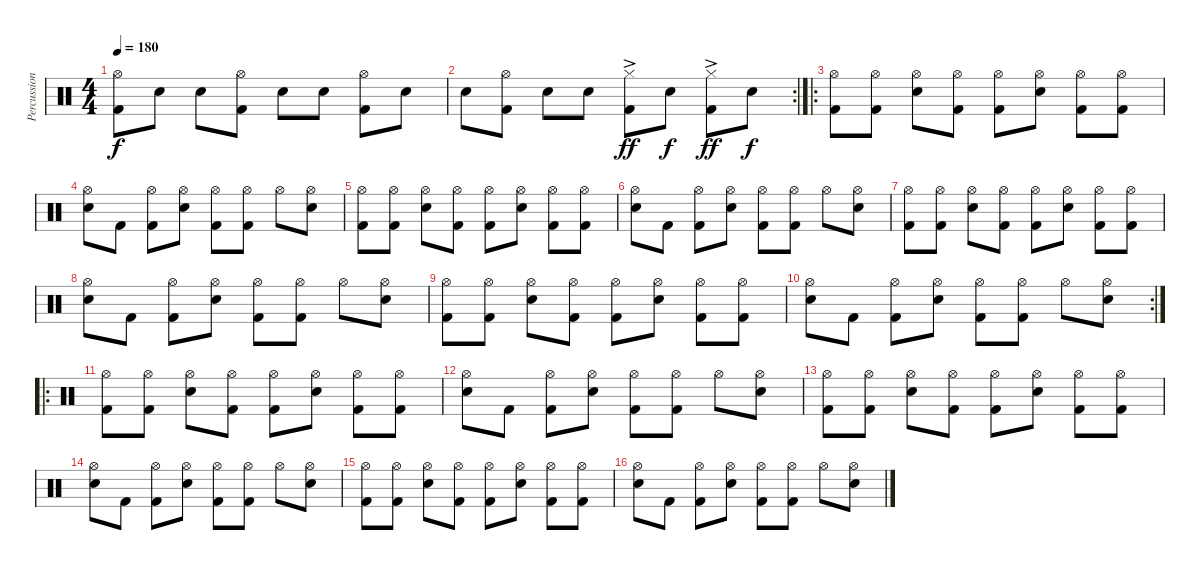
\track ("Percussion" "Percussion") {instrument percussion}
\staff {score}
\articulation defaults
\ts (4 4)
\tempo 180
\clef neutral
\ks c
("Hi-Hat (open)" "Kick (hit) 2").8{dy f} "Snare (hit) 2".8 "Snare (hit) 2".8 ("Hi-Hat (open)" "Kick (hit) 2").8 "Snare (hit) 2".8 "Snare (hit) 2".8 ("Hi-Hat (open)" "Kick (hit) 2").8 "Snare (hit) 2".8 |
\rc 2 "Snare (hit) 2".8
("Hi-Hat (open)" "Kick (hit) 2").8 "Snare (hit) 2".8 "Snare (hit) 2".8 ("Hi-Hat (closed)"{ac} "Kick (hit) 2").8{dy ff} "Snare (hit) 2".8{dy f} ("Hi-Hat (closed)"{ac} "Kick (hit) 2").8{dy ff} "Snare (hit) 2".8{dy f} |
\ro
("Hi-Hat (open)" "Kick (hit) 2").8 ("Hi-Hat (open)" "Kick (hit) 2").8 ("Hi-Hat (open)" "Snare (hit) 2").8 ("Hi-Hat (open)" "Kick (hit) 2").8 ("Hi-Hat (open)" "Kick (hit) 2").8 ("Hi-Hat (open)" "Snare (hit) 2").8 ("Hi-Hat (open)" "Kick (hit) 2").8 ("Hi-Hat (open)" "Kick (hit) 2").8 |
("Hi-Hat (open)" "Snare (hit) 2").8 "Kick (hit) 2".8 ("Hi-Hat (open)" "Kick (hit) 2").8 ("Hi-Hat (open)" "Snare (hit) 2").8 ("Hi-Hat (open)" "Kick (hit) 2").8 ("Hi-Hat (open)" "Kick (hit) 2").8 "Hi-Hat (open)".8 ("Hi-Hat (open)" "Snare (hit) 2").8 |
("Hi-Hat (open)" "Kick (hit) 2").8 ("Hi-Hat (open)" "Kick (hit) 2").8 ("Hi-Hat (open)" "Snare (hit) 2").8 ("Hi-Hat (open)" "Kick (hit) 2").8 ("Hi-Hat (open)" "Kick (hit) 2").8 ("Hi-Hat (open)" "Snare (hit) 2").8 ("Hi-Hat (open)" "Kick (hit) 2").8 ("Hi-Hat (open)" "Kick (hit) 2").8 |
("Hi-Hat (open)" "Snare (hit) 2").8 "Kick (hit) 2".8 ("Hi-Hat (open)" "Kick (hit) 2").8 ("Hi-Hat (open)" "Snare (hit) 2").8 ("Hi-Hat (open)" "Kick (hit) 2").8 ("Hi-Hat (open)" "Kick (hit) 2").8 "Hi-Hat (open)".8 ("Hi-Hat (open)" "Snare (hit) 2").8 |
("Hi-Hat (open)" "Kick (hit) 2").8 ("Hi-Hat (open)" "Kick (hit) 2").8 ("Hi-Hat (open)" "Snare (hit) 2").8 ("Hi-Hat (open)" "Kick (hit) 2").8 ("Hi-Hat (open)" "Kick (hit) 2").8 ("Hi-Hat (open)" "Snare (hit) 2").8 ("Hi-Hat (open)" "Kick (hit) 2").8 ("Hi-Hat (open)" "Kick (hit) 2").8 |
("Hi-Hat (open)" "Snare (hit) 2").8 "Kick (hit) 2".8 ("Hi-Hat (open)" "Kick (hit) 2").8 ("Hi-Hat (open)" "Snare (hit) 2").8 ("Hi-Hat (open)" "Kick (hit) 2").8 ("Hi-Hat (open)" "Kick (hit) 2").8 "Hi-Hat (open)".8 ("Hi-Hat (open)" "Snare (hit) 2").8 |
("Hi-Hat (open)" "Kick (hit) 2").8 ("Hi-Hat (open)" "Kick (hit) 2").8 ("Hi-Hat (open)" "Snare (hit) 2").8 ("Hi-Hat (open)" "Kick (hit) 2").8 ("Hi-Hat (open)" "Kick (hit) 2").8 ("Hi-Hat (open)" "Snare (hit) 2").8 ("Hi-Hat (open)" "Kick (hit) 2").8 ("Hi-Hat (open)" "Kick (hit) 2").8 |
\rc 2
("Hi-Hat (open)" "Snare (hit) 2").8 "Kick (hit) 2".8 ("Hi-Hat (open)" "Kick (hit) 2").8 ("Hi-Hat (open)" "Snare (hit) 2").8 ("Hi-Hat (open)" "Kick (hit) 2").8 ("Hi-Hat (open)" "Kick (hit) 2").8 "Hi-Hat (open)".8 ("Hi-Hat (open)" "Snare (hit) 2").8 |
\ro
("Hi-Hat (open)" "Kick (hit) 2").8 ("Hi-Hat (open)" "Kick (hit) 2").8 ("Hi-Hat (open)" "Snare (hit) 2").8 ("Hi-Hat (open)" "Kick (hit) 2").8 ("Hi-Hat (open)" "Kick (hit) 2").8 ("Hi-Hat (open)" "Snare (hit) 2").8 ("Hi-Hat (open)" "Kick (hit) 2").8 ("Hi-Hat (open)" "Kick (hit) 2").8 |
("Hi-Hat (open)" "Snare (hit) 2").8 "Kick (hit) 2".8 ("Hi-Hat (open)" "Kick (hit) 2").8 ("Hi-Hat (open)" "Snare (hit) 2").8 ("Hi-Hat (open)" "Kick (hit) 2").8 ("Hi-Hat (open)" "Kick (hit) 2").8 "Hi-Hat (open)".8 ("Hi-Hat (open)" "Snare (hit) 2").8 |
("Hi-Hat (open)" "Kick (hit) 2").8 ("Hi-Hat (open)" "Kick (hit) 2").8 ("Hi-Hat (open)" "Snare (hit) 2").8 ("Hi-Hat (open)" "Kick (hit) 2").8 ("Hi-Hat (open)" "Kick (hit) 2").8 ("Hi-Hat (open)" "Snare (hit) 2").8 ("Hi-Hat (open)" "Kick (hit) 2").8 ("Hi-Hat (open)" "Kick (hit) 2").8 |
("Hi-Hat (open)" "Snare (hit) 2").8 "Kick (hit) 2".8 ("Hi-Hat (open)" "Kick (hit) 2").8 ("Hi-Hat (open)" "Snare (hit) 2").8 ("Hi-Hat (open)" "Kick (hit) 2").8 ("Hi-Hat (open)" "Kick (hit) 2").8 "Hi-Hat (open)".8 ("Hi-Hat (open)" "Snare (hit) 2").8 |
("Hi-Hat (open)" "Kick (hit) 2").8 ("Hi-Hat (open)" "Kick (hit) 2").8 ("Hi-Hat (open)" "Snare (hit) 2").8 ("Hi-Hat (open)" "Kick (hit) 2").8 ("Hi-Hat (open)" "Kick (hit) 2").8 ("Hi-Hat (open)" "Snare (hit) 2").8 ("Hi-Hat (open)" "Kick (hit) 2").8 ("Hi-Hat (open)" "Kick (hit) 2").8 |
("Hi-Hat (open)" "Snare (hit) 2").8 "Kick (hit) 2".8 ("Hi-Hat (open)" "Kick (hit) 2").8 ("Hi-Hat (open)" "Snare (hit) 2").8 ("Hi-Hat (open)" "Kick (hit) 2").8 ("Hi-Hat (open)" "Kick (hit) 2").8 "Hi-Hat (open)".8 ("Hi-Hat (open)" "Snare (hit) 2").8
